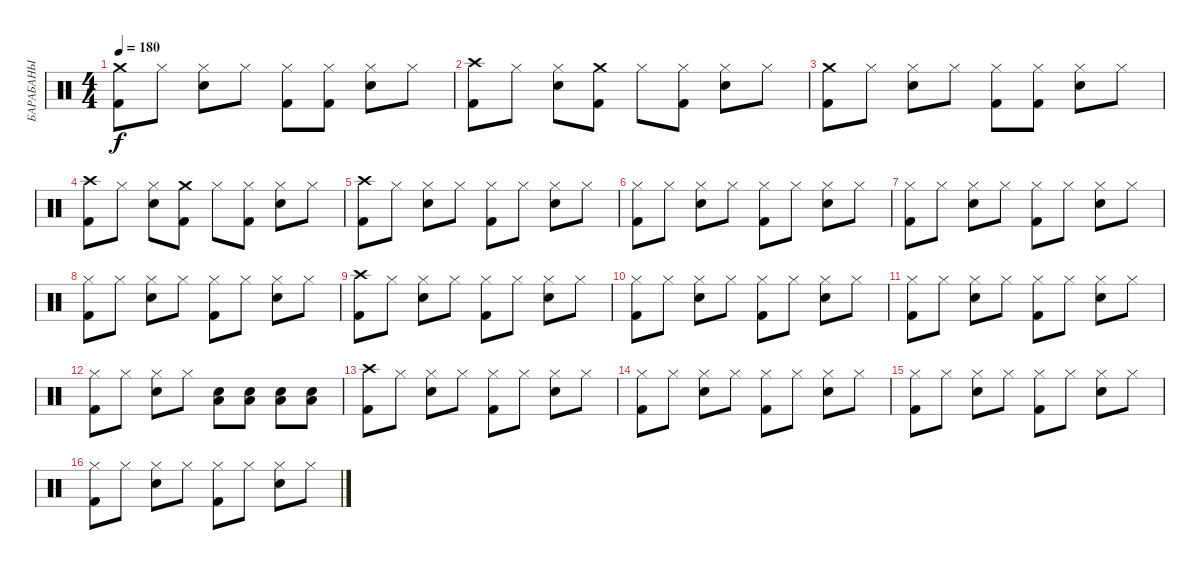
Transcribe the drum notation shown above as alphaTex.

\track ("БАРАБАНЫ" "БАРАБАНЫ") {instrument percussion}
\staff {score}
\articulation defaults
\ts (4 4)
\tempo 180
\clef neutral
\ks c
("Crash medium (hit)" "Kick (hit) 2").8{dy f} "Hi-Hat (closed)".8 ("Hi-Hat (closed)" "Electric Snare (hit)").8 "Hi-Hat (closed)".8 ("Hi-Hat (closed)" "Kick (hit) 2").8 ("Hi-Hat (closed)" "Kick (hit) 2").8 ("Hi-Hat (closed)" "Electric Snare (hit)").8 "Hi-Hat (closed)".8 |
("Crash high (hit)" "Kick (hit) 2").8 "Hi-Hat (closed)".8 ("Hi-Hat (closed)" "Electric Snare (hit)").8 ("Crash medium (hit)" "Kick (hit) 2").8 "Hi-Hat (closed)".8 ("Hi-Hat (closed)" "Kick (hit) 2").8 ("Hi-Hat (closed)" "Electric Snare (hit)").8 "Hi-Hat (closed)".8 |
("Crash medium (hit)" "Kick (hit) 2").8 "Hi-Hat (closed)".8 ("Hi-Hat (closed)" "Electric Snare (hit)").8 "Hi-Hat (closed)".8 ("Hi-Hat (closed)" "Kick (hit) 2").8 ("Hi-Hat (closed)" "Kick (hit) 2").8 ("Hi-Hat (closed)" "Electric Snare (hit)").8 "Hi-Hat (closed)".8 |
("Crash high (hit)" "Kick (hit) 2").8 "Hi-Hat (closed)".8 ("Hi-Hat (closed)" "Electric Snare (hit)").8 ("Crash medium (hit)" "Kick (hit) 2").8 "Hi-Hat (closed)".8 ("Hi-Hat (closed)" "Kick (hit) 2").8 ("Hi-Hat (closed)" "Electric Snare (hit)").8 "Hi-Hat (closed)".8 |
("Crash high (hit)" "Kick (hit) 2").8 "Hi-Hat (closed)".8 ("Hi-Hat (closed)" "Electric Snare (hit)").8 "Hi-Hat (closed)".8 ("Hi-Hat (closed)" "Kick (hit) 2").8 "Hi-Hat (closed)".8 ("Hi-Hat (closed)" "Electric Snare (hit)").8 "Hi-Hat (closed)".8 |
("Hi-Hat (closed)" "Kick (hit) 2").8 "Hi-Hat (closed)".8 ("Hi-Hat (closed)" "Electric Snare (hit)").8 "Hi-Hat (closed)".8 ("Hi-Hat (closed)" "Kick (hit) 2").8 "Hi-Hat (closed)".8 ("Hi-Hat (closed)" "Electric Snare (hit)").8 "Hi-Hat (closed)".8 |
("Hi-Hat (closed)" "Kick (hit) 2").8 "Hi-Hat (closed)".8 ("Hi-Hat (closed)" "Electric Snare (hit)").8 "Hi-Hat (closed)".8 ("Hi-Hat (closed)" "Kick (hit) 2").8 "Hi-Hat (closed)".8 ("Hi-Hat (closed)" "Electric Snare (hit)").8 "Hi-Hat (closed)".8 |
("Hi-Hat (closed)" "Kick (hit) 2").8 "Hi-Hat (closed)".8 ("Hi-Hat (closed)" "Electric Snare (hit)").8 "Hi-Hat (closed)".8 ("Hi-Hat (closed)" "Kick (hit) 2").8 "Hi-Hat (closed)".8 ("Hi-Hat (closed)" "Electric Snare (hit)").8 "Hi-Hat (closed)".8 |
("Crash high (hit)" "Kick (hit) 2").8 "Hi-Hat (closed)".8 ("Hi-Hat (closed)" "Electric Snare (hit)").8 "Hi-Hat (closed)".8 ("Hi-Hat (closed)" "Kick (hit) 2").8 "Hi-Hat (closed)".8 ("Hi-Hat (closed)" "Electric Snare (hit)").8 "Hi-Hat (closed)".8 |
("Hi-Hat (closed)" "Kick (hit) 2").8 "Hi-Hat (closed)".8 ("Hi-Hat (closed)" "Electric Snare (hit)").8 "Hi-Hat (closed)".8 ("Hi-Hat (closed)" "Kick (hit) 2").8 "Hi-Hat (closed)".8 ("Hi-Hat (closed)" "Electric Snare (hit)").8 "Hi-Hat (closed)".8 |
("Hi-Hat (closed)" "Kick (hit) 2").8 "Hi-Hat (closed)".8 ("Hi-Hat (closed)" "Electric Snare (hit)").8 "Hi-Hat (closed)".8 ("Hi-Hat (closed)" "Kick (hit) 2").8 "Hi-Hat (closed)".8 ("Hi-Hat (closed)" "Electric Snare (hit)").8 "Hi-Hat (closed)".8 |
("Hi-Hat (closed)" "Kick (hit) 2").8 "Hi-Hat (closed)".8 ("Hi-Hat (closed)" "Electric Snare (hit)").8 "Hi-Hat (closed)".8 ("Low Floor Tom (hit)" "Electric Snare (hit)").8 ("Low Floor Tom (hit)" "Electric Snare (hit)").8 ("Low Floor Tom (hit)" "Electric Snare (hit)").8 ("Low Floor Tom (hit)" "Electric Snare (hit)").8 |
("Crash high (hit)" "Kick (hit) 2").8 "Hi-Hat (closed)".8 ("Hi-Hat (closed)" "Electric Snare (hit)").8 "Hi-Hat (closed)".8 ("Hi-Hat (closed)" "Kick (hit) 2").8 "Hi-Hat (closed)".8 ("Hi-Hat (closed)" "Electric Snare (hit)").8 "Hi-Hat (closed)".8 |
("Hi-Hat (closed)" "Kick (hit) 2").8 "Hi-Hat (closed)".8 ("Hi-Hat (closed)" "Electric Snare (hit)").8 "Hi-Hat (closed)".8 ("Hi-Hat (closed)" "Kick (hit) 2").8 "Hi-Hat (closed)".8 ("Hi-Hat (closed)" "Electric Snare (hit)").8 "Hi-Hat (closed)".8 |
("Hi-Hat (closed)" "Kick (hit) 2").8 "Hi-Hat (closed)".8 ("Hi-Hat (closed)" "Electric Snare (hit)").8 "Hi-Hat (closed)".8 ("Hi-Hat (closed)" "Kick (hit) 2").8 "Hi-Hat (closed)".8 ("Hi-Hat (closed)" "Electric Snare (hit)").8 "Hi-Hat (closed)".8 |
("Hi-Hat (closed)" "Kick (hit) 2").8 "Hi-Hat (closed)".8 ("Hi-Hat (closed)" "Electric Snare (hit)").8 "Hi-Hat (closed)".8 ("Hi-Hat (closed)" "Kick (hit) 2").8 "Hi-Hat (closed)".8 ("Hi-Hat (closed)" "Electric Snare (hit)").8 "Hi-Hat (closed)".8
